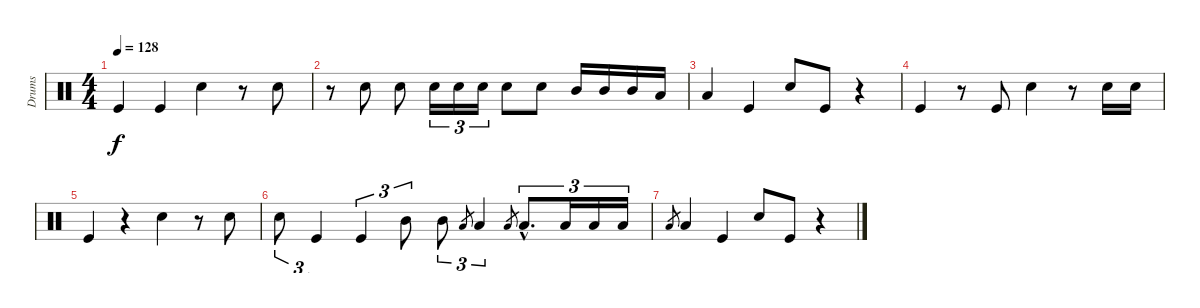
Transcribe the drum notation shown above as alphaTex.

\track ("Drums" "Drums") {instrument percussion}
\staff {score}
\articulation defaults
\ts (4 4)
\tempo 128
\clef neutral
\ks c "Kick (hit)".4{dy f} "Kick (hit)".4 "Snare (hit) 2".4
r.8 "Snare (hit) 2".8 |
r.8 "Snare (hit) 2".8 "Snare (hit) 2".8 "Snare (hit) 2".16{tu (3 2)} "Snare (hit) 2".16{tu (3 2)} "Snare (hit) 2".16{tu (3 2)} "Snare (hit) 2".8 "Snare (hit) 2".8 "Mid Tom (hit)".16 "Mid Tom (hit)".16 "Mid Tom (hit)".16 "Low Tom (hit)".16 |
"Low Tom (hit)".4 "Kick (hit)".4 "Snare (hit) 2".8 "Kick (hit)".8 r.4 |
"Kick (hit)".4 r.8 "Kick (hit)".8 "Snare (hit) 2".4 r.8 "Snare (hit) 2".16 "Snare (hit) 2".16 |
"Kick (hit)".4 r.4 "Snare (hit) 2".4 r.8 "Snare (hit) 2".8 |
"Snare (hit) 2".8{tu (3 2)} "Kick (hit)".4{tu (3 2)} "Kick (hit)".4{tu (3 2)} "Mid Tom (hit)".8{tu (3 2)} "Mid Tom (hit)".8{tu (3 2)} "Low Tom (hit)".8{gr} "Low Tom (hit)".4{tu (3 2)} "Low Tom (hit)".8{gr} "Low Tom (hit)"{hac}.8{d tu (3 2)} "Low Tom (hit)".16{tu (3 2)} "Low Tom (hit)".16{tu (3 2)} "Low Tom (hit)".16{tu (3 2)} |
"Low Tom (hit)".8{gr} "Low Tom (hit)".4 "Kick (hit)".4 "Snare (hit) 2".8 "Kick (hit)".8 r.4
